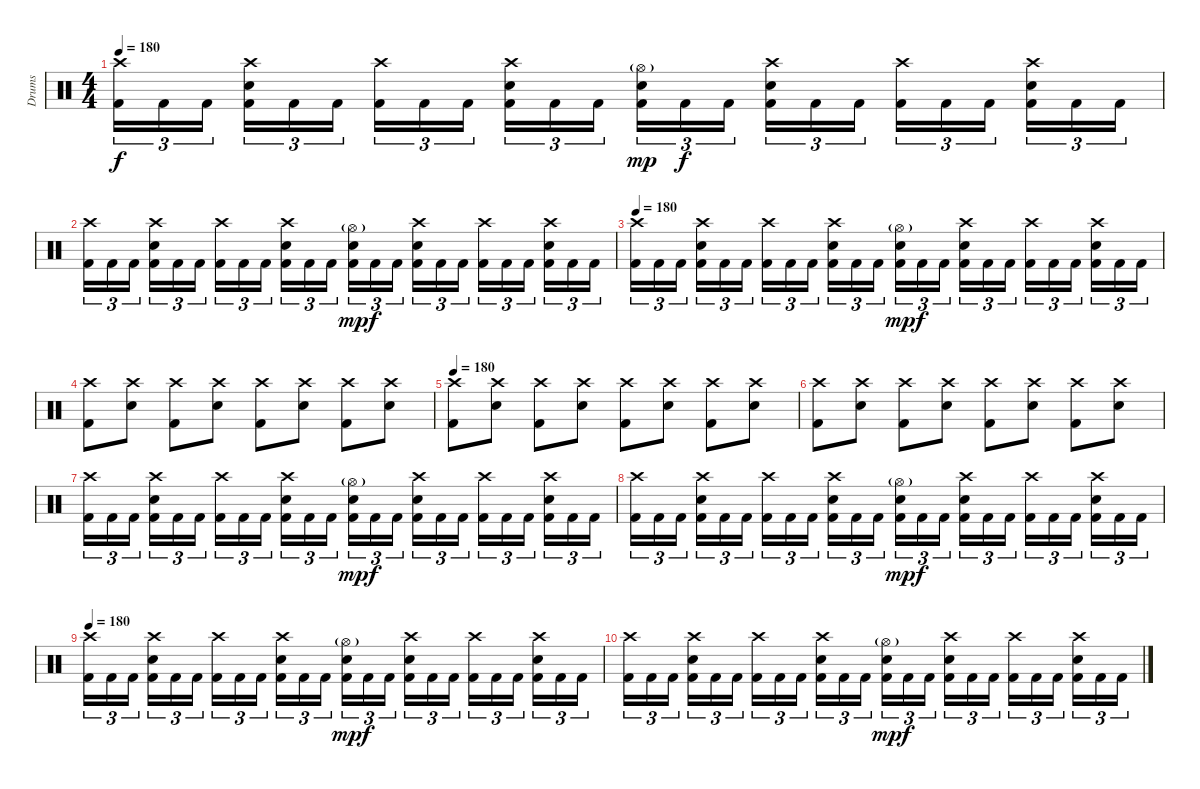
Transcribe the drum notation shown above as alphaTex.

\track ("Drums" "Drums") {instrument percussion}
\staff {score}
\articulation defaults
\ts (4 4)
\tempo 180
\clef neutral
\ks c
("Crash high (hit)" "Kick (hit) 2").16{tu (3 2) dy f} "Kick (hit) 2".16{tu (3 2)} "Kick (hit) 2".16{tu (3 2) beam splitsecondary} ("Crash high (hit)" "Snare (hit) 2" "Kick (hit) 2").16{tu (3 2)} "Kick (hit) 2".16{tu (3 2)} "Kick (hit) 2".16{tu (3 2)} ("Crash high (hit)" "Kick (hit) 2").16{tu (3 2)} "Kick (hit) 2".16{tu (3 2)} "Kick (hit) 2".16{tu (3 2) beam splitsecondary} ("Crash high (hit)" "Snare (hit) 2" "Kick (hit) 2").16{tu (3 2)} "Kick (hit) 2".16{tu (3 2)} "Kick (hit) 2".16{tu (3 2)} ("Snare (hit) 2" "Hi-Hat (open)"{g} "Kick (hit) 2").16{tu (3 2) dy mp} "Kick (hit) 2".16{tu (3 2) dy f} "Kick (hit) 2".16{tu (3 2) beam splitsecondary} ("Crash high (hit)" "Snare (hit) 2" "Kick (hit) 2").16{tu (3 2)} "Kick (hit) 2".16{tu (3 2)} "Kick (hit) 2".16{tu (3 2)} ("Crash high (hit)" "Kick (hit) 2").16{tu (3 2)} "Kick (hit) 2".16{tu (3 2)} "Kick (hit) 2".16{tu (3 2) beam splitsecondary} ("Snare (hit) 2" "Crash high (hit)" "Kick (hit) 2").16{tu (3 2)} "Kick (hit) 2".16{tu (3 2)} "Kick (hit) 2".16{tu (3 2)} |
("Crash high (hit)" "Kick (hit) 2").16{tu (3 2)} "Kick (hit) 2".16{tu (3 2)} "Kick (hit) 2".16{tu (3 2) beam splitsecondary} ("Crash high (hit)" "Snare (hit) 2" "Kick (hit) 2").16{tu (3 2)} "Kick (hit) 2".16{tu (3 2)} "Kick (hit) 2".16{tu (3 2)} ("Crash high (hit)" "Kick (hit) 2").16{tu (3 2)} "Kick (hit) 2".16{tu (3 2)} "Kick (hit) 2".16{tu (3 2) beam splitsecondary} ("Crash high (hit)" "Snare (hit) 2" "Kick (hit) 2").16{tu (3 2)} "Kick (hit) 2".16{tu (3 2)} "Kick (hit) 2".16{tu (3 2)} ("Snare (hit) 2" "Hi-Hat (open)"{g} "Kick (hit) 2").16{tu (3 2) dy mp} "Kick (hit) 2".16{tu (3 2) dy f} "Kick (hit) 2".16{tu (3 2) beam splitsecondary} ("Crash high (hit)" "Snare (hit) 2" "Kick (hit) 2").16{tu (3 2)} "Kick (hit) 2".16{tu (3 2)} "Kick (hit) 2".16{tu (3 2)} ("Crash high (hit)" "Kick (hit) 2").16{tu (3 2)} "Kick (hit) 2".16{tu (3 2)} "Kick (hit) 2".16{tu (3 2) beam splitsecondary} ("Snare (hit) 2" "Crash high (hit)" "Kick (hit) 2").16{tu (3 2)} "Kick (hit) 2".16{tu (3 2)} "Kick (hit) 2".16{tu (3 2)} |
\tempo 180
("Crash high (hit)" "Kick (hit) 2").16{tu (3 2)} "Kick (hit) 2".16{tu (3 2)} "Kick (hit) 2".16{tu (3 2) beam splitsecondary} ("Crash high (hit)" "Snare (hit) 2" "Kick (hit) 2").16{tu (3 2)} "Kick (hit) 2".16{tu (3 2)} "Kick (hit) 2".16{tu (3 2)} ("Crash high (hit)" "Kick (hit) 2").16{tu (3 2)} "Kick (hit) 2".16{tu (3 2)} "Kick (hit) 2".16{tu (3 2) beam splitsecondary} ("Crash high (hit)" "Snare (hit) 2" "Kick (hit) 2").16{tu (3 2)} "Kick (hit) 2".16{tu (3 2)} "Kick (hit) 2".16{tu (3 2)} ("Snare (hit) 2" "Hi-Hat (open)"{g} "Kick (hit) 2").16{tu (3 2) dy mp} "Kick (hit) 2".16{tu (3 2) dy f} "Kick (hit) 2".16{tu (3 2) beam splitsecondary} ("Crash high (hit)" "Snare (hit) 2" "Kick (hit) 2").16{tu (3 2)} "Kick (hit) 2".16{tu (3 2)} "Kick (hit) 2".16{tu (3 2)} ("Crash high (hit)" "Kick (hit) 2").16{tu (3 2)} "Kick (hit) 2".16{tu (3 2)} "Kick (hit) 2".16{tu (3 2) beam splitsecondary} ("Snare (hit) 2" "Crash high (hit)" "Kick (hit) 2").16{tu (3 2)} "Kick (hit) 2".16{tu (3 2)} "Kick (hit) 2".16{tu (3 2)} |
("Crash high (hit)" "Kick (hit) 2").8 ("Crash high (hit)" "Snare (hit) 2").8 ("Crash high (hit)" "Kick (hit) 2").8 ("Crash high (hit)" "Snare (hit) 2").8 ("Crash high (hit)" "Kick (hit) 2").8 ("Crash high (hit)" "Snare (hit) 2").8 ("Crash high (hit)" "Kick (hit) 2").8 ("Crash high (hit)" "Snare (hit) 2").8 |
\tempo 180
("Crash high (hit)" "Kick (hit) 2").8 ("Crash high (hit)" "Snare (hit) 2").8 ("Crash high (hit)" "Kick (hit) 2").8 ("Crash high (hit)" "Snare (hit) 2").8 ("Crash high (hit)" "Kick (hit) 2").8 ("Crash high (hit)" "Snare (hit) 2").8 ("Crash high (hit)" "Kick (hit) 2").8 ("Crash high (hit)" "Snare (hit) 2").8 |
("Crash high (hit)" "Kick (hit) 2").8 ("Crash high (hit)" "Snare (hit) 2").8 ("Crash high (hit)" "Kick (hit) 2").8 ("Crash high (hit)" "Snare (hit) 2").8 ("Crash high (hit)" "Kick (hit) 2").8 ("Crash high (hit)" "Snare (hit) 2").8 ("Crash high (hit)" "Kick (hit) 2").8 ("Crash high (hit)" "Snare (hit) 2").8 |
("Crash high (hit)" "Kick (hit) 2").16{tu (3 2)} "Kick (hit) 2".16{tu (3 2)} "Kick (hit) 2".16{tu (3 2) beam splitsecondary} ("Crash high (hit)" "Snare (hit) 2" "Kick (hit) 2").16{tu (3 2)} "Kick (hit) 2".16{tu (3 2)} "Kick (hit) 2".16{tu (3 2)} ("Crash high (hit)" "Kick (hit) 2").16{tu (3 2)} "Kick (hit) 2".16{tu (3 2)} "Kick (hit) 2".16{tu (3 2) beam splitsecondary} ("Crash high (hit)" "Snare (hit) 2" "Kick (hit) 2").16{tu (3 2)} "Kick (hit) 2".16{tu (3 2)} "Kick (hit) 2".16{tu (3 2)} ("Snare (hit) 2" "Hi-Hat (open)"{g} "Kick (hit) 2").16{tu (3 2) dy mp} "Kick (hit) 2".16{tu (3 2) dy f} "Kick (hit) 2".16{tu (3 2) beam splitsecondary} ("Crash high (hit)" "Snare (hit) 2" "Kick (hit) 2").16{tu (3 2)} "Kick (hit) 2".16{tu (3 2)} "Kick (hit) 2".16{tu (3 2)} ("Crash high (hit)" "Kick (hit) 2").16{tu (3 2)} "Kick (hit) 2".16{tu (3 2)} "Kick (hit) 2".16{tu (3 2) beam splitsecondary} ("Snare (hit) 2" "Crash high (hit)" "Kick (hit) 2").16{tu (3 2)} "Kick (hit) 2".16{tu (3 2)} "Kick (hit) 2".16{tu (3 2)} |
("Crash high (hit)" "Kick (hit) 2").16{tu (3 2)} "Kick (hit) 2".16{tu (3 2)} "Kick (hit) 2".16{tu (3 2) beam splitsecondary} ("Crash high (hit)" "Snare (hit) 2" "Kick (hit) 2").16{tu (3 2)} "Kick (hit) 2".16{tu (3 2)} "Kick (hit) 2".16{tu (3 2)} ("Crash high (hit)" "Kick (hit) 2").16{tu (3 2)} "Kick (hit) 2".16{tu (3 2)} "Kick (hit) 2".16{tu (3 2) beam splitsecondary} ("Crash high (hit)" "Snare (hit) 2" "Kick (hit) 2").16{tu (3 2)} "Kick (hit) 2".16{tu (3 2)} "Kick (hit) 2".16{tu (3 2)} ("Snare (hit) 2" "Hi-Hat (open)"{g} "Kick (hit) 2").16{tu (3 2) dy mp} "Kick (hit) 2".16{tu (3 2) dy f} "Kick (hit) 2".16{tu (3 2) beam splitsecondary} ("Crash high (hit)" "Snare (hit) 2" "Kick (hit) 2").16{tu (3 2)} "Kick (hit) 2".16{tu (3 2)} "Kick (hit) 2".16{tu (3 2)} ("Crash high (hit)" "Kick (hit) 2").16{tu (3 2)} "Kick (hit) 2".16{tu (3 2)} "Kick (hit) 2".16{tu (3 2) beam splitsecondary} ("Snare (hit) 2" "Crash high (hit)" "Kick (hit) 2").16{tu (3 2)} "Kick (hit) 2".16{tu (3 2)} "Kick (hit) 2".16{tu (3 2)} |
\tempo 180
("Crash high (hit)" "Kick (hit) 2").16{tu (3 2)} "Kick (hit) 2".16{tu (3 2)} "Kick (hit) 2".16{tu (3 2) beam splitsecondary} ("Crash high (hit)" "Snare (hit) 2" "Kick (hit) 2").16{tu (3 2)} "Kick (hit) 2".16{tu (3 2)} "Kick (hit) 2".16{tu (3 2)} ("Crash high (hit)" "Kick (hit) 2").16{tu (3 2)} "Kick (hit) 2".16{tu (3 2)} "Kick (hit) 2".16{tu (3 2) beam splitsecondary} ("Crash high (hit)" "Snare (hit) 2" "Kick (hit) 2").16{tu (3 2)} "Kick (hit) 2".16{tu (3 2)} "Kick (hit) 2".16{tu (3 2)} ("Snare (hit) 2" "Hi-Hat (open)"{g} "Kick (hit) 2").16{tu (3 2) dy mp} "Kick (hit) 2".16{tu (3 2) dy f} "Kick (hit) 2".16{tu (3 2) beam splitsecondary} ("Crash high (hit)" "Snare (hit) 2" "Kick (hit) 2").16{tu (3 2)} "Kick (hit) 2".16{tu (3 2)} "Kick (hit) 2".16{tu (3 2)} ("Crash high (hit)" "Kick (hit) 2").16{tu (3 2)} "Kick (hit) 2".16{tu (3 2)} "Kick (hit) 2".16{tu (3 2) beam splitsecondary} ("Snare (hit) 2" "Crash high (hit)" "Kick (hit) 2").16{tu (3 2)} "Kick (hit) 2".16{tu (3 2)} "Kick (hit) 2".16{tu (3 2)} |
("Crash high (hit)" "Kick (hit) 2").16{tu (3 2)} "Kick (hit) 2".16{tu (3 2)} "Kick (hit) 2".16{tu (3 2) beam splitsecondary} ("Crash high (hit)" "Snare (hit) 2" "Kick (hit) 2").16{tu (3 2)} "Kick (hit) 2".16{tu (3 2)} "Kick (hit) 2".16{tu (3 2)} ("Crash high (hit)" "Kick (hit) 2").16{tu (3 2)} "Kick (hit) 2".16{tu (3 2)} "Kick (hit) 2".16{tu (3 2) beam splitsecondary} ("Crash high (hit)" "Snare (hit) 2" "Kick (hit) 2").16{tu (3 2)} "Kick (hit) 2".16{tu (3 2)} "Kick (hit) 2".16{tu (3 2)} ("Snare (hit) 2" "Hi-Hat (open)"{g} "Kick (hit) 2").16{tu (3 2) dy mp} "Kick (hit) 2".16{tu (3 2) dy f} "Kick (hit) 2".16{tu (3 2) beam splitsecondary} ("Crash high (hit)" "Snare (hit) 2" "Kick (hit) 2").16{tu (3 2)} "Kick (hit) 2".16{tu (3 2)} "Kick (hit) 2".16{tu (3 2)} ("Crash high (hit)" "Kick (hit) 2").16{tu (3 2)} "Kick (hit) 2".16{tu (3 2)} "Kick (hit) 2".16{tu (3 2) beam splitsecondary} ("Snare (hit) 2" "Crash high (hit)" "Kick (hit) 2").16{tu (3 2)} "Kick (hit) 2".16{tu (3 2)} "Kick (hit) 2".16{tu (3 2)}
